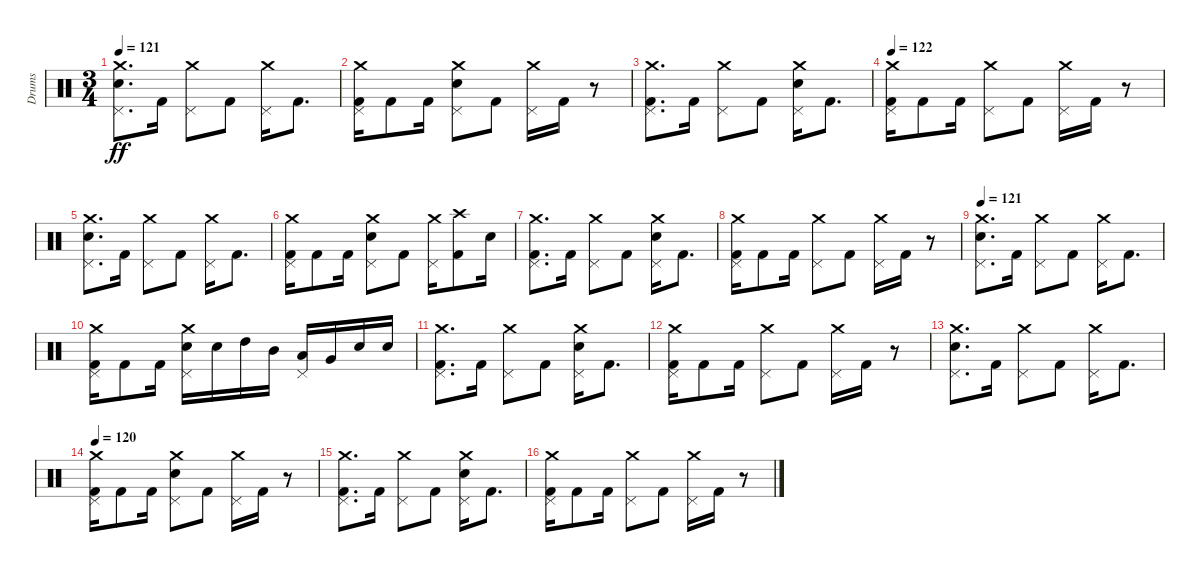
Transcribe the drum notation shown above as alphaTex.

\track ("Drums" "Drums") {instrument percussion}
\staff {score}
\articulation defaults
\ts (3 4)
\tempo 121
\clef neutral
\ks c
("Crash medium (hit)" "Pedal Hi-Hat (hit)" "Electric Snare (hit)").8{d dy ff} "Kick (hit) 2".16 ("Crash medium (hit)" "Pedal Hi-Hat (hit)").8 "Kick (hit) 2".8 ("Crash medium (hit)" "Pedal Hi-Hat (hit)").16 "Kick (hit) 2".8{d} |
("Crash medium (hit)" "Pedal Hi-Hat (hit)" "Kick (hit) 2").16 "Kick (hit) 2".8 "Kick (hit) 2".16 ("Crash medium (hit)" "Pedal Hi-Hat (hit)" "Electric Snare (hit)").8 "Kick (hit) 2".8 ("Crash medium (hit)" "Pedal Hi-Hat (hit)").16 "Kick (hit) 2".16 r.8 |
("Crash medium (hit)" "Pedal Hi-Hat (hit)" "Kick (hit) 2").8{d} "Kick (hit) 2".16 ("Crash medium (hit)" "Pedal Hi-Hat (hit)").8 "Kick (hit) 2".8 ("Crash medium (hit)" "Pedal Hi-Hat (hit)" "Electric Snare (hit)").16 "Kick (hit) 2".8{d} |
\tempo 122
("Crash medium (hit)" "Pedal Hi-Hat (hit)" "Kick (hit) 2").16 "Kick (hit) 2".8 "Kick (hit) 2".16 ("Crash medium (hit)" "Pedal Hi-Hat (hit)").8 "Kick (hit) 2".8 ("Crash medium (hit)" "Pedal Hi-Hat (hit)").16 "Kick (hit) 2".16 r.8 |
("Crash medium (hit)" "Pedal Hi-Hat (hit)" "Electric Snare (hit)").8{d} "Kick (hit) 2".16 ("Crash medium (hit)" "Pedal Hi-Hat (hit)").8 "Kick (hit) 2".8 ("Crash medium (hit)" "Pedal Hi-Hat (hit)").16 "Kick (hit) 2".8{d} |
("Crash medium (hit)" "Pedal Hi-Hat (hit)" "Kick (hit) 2").16 "Kick (hit) 2".8 "Kick (hit) 2".16 ("Crash medium (hit)" "Pedal Hi-Hat (hit)" "Electric Snare (hit)").8 "Kick (hit) 2".8 ("Crash medium (hit)" "Pedal Hi-Hat (hit)").16 ("Crash high (hit)" "Kick (hit) 2").8 "Electric Snare (hit)".16 |
("Crash medium (hit)" "Pedal Hi-Hat (hit)" "Kick (hit) 2").8{d} "Kick (hit) 2".16 ("Crash medium (hit)" "Pedal Hi-Hat (hit)").8 "Kick (hit) 2".8 ("Crash medium (hit)" "Pedal Hi-Hat (hit)" "Electric Snare (hit)").16 "Kick (hit) 2".8{d} |
("Crash medium (hit)" "Pedal Hi-Hat (hit)" "Kick (hit) 2").16 "Kick (hit) 2".8 "Kick (hit) 2".16 ("Crash medium (hit)" "Pedal Hi-Hat (hit)").8 "Kick (hit) 2".8 ("Crash medium (hit)" "Pedal Hi-Hat (hit)").16 "Kick (hit) 2".16 r.8 |
\tempo 121
("Crash medium (hit)" "Pedal Hi-Hat (hit)" "Electric Snare (hit)").8{d} "Kick (hit) 2".16 ("Crash medium (hit)" "Pedal Hi-Hat (hit)").8 "Kick (hit) 2".8 ("Crash medium (hit)" "Pedal Hi-Hat (hit)").16 "Kick (hit) 2".8{d} |
("Crash medium (hit)" "Pedal Hi-Hat (hit)" "Kick (hit) 2").16 "Kick (hit) 2".8 "Kick (hit) 2".16 ("Crash medium (hit)" "Pedal Hi-Hat (hit)" "Electric Snare (hit)").16 "Electric Snare (hit)".16 "High Tom (hit)".16 "Mid Tom (hit)".16 ("Pedal Hi-Hat (hit)" "Low Tom (hit)").16 "Very Low Tom (hit)".16 "Electric Snare (hit)".16 "Electric Snare (hit)".16 |
("Crash medium (hit)" "Pedal Hi-Hat (hit)" "Kick (hit) 2").8{d} "Kick (hit) 2".16 ("Crash medium (hit)" "Pedal Hi-Hat (hit)").8 "Kick (hit) 2".8 ("Crash medium (hit)" "Pedal Hi-Hat (hit)" "Electric Snare (hit)").16 "Kick (hit) 2".8{d} |
("Crash medium (hit)" "Pedal Hi-Hat (hit)" "Kick (hit) 2").16 "Kick (hit) 2".8 "Kick (hit) 2".16 ("Crash medium (hit)" "Pedal Hi-Hat (hit)").8 "Kick (hit) 2".8 ("Crash medium (hit)" "Pedal Hi-Hat (hit)").16 "Kick (hit) 2".16 r.8 |
("Crash medium (hit)" "Pedal Hi-Hat (hit)" "Electric Snare (hit)").8{d} "Kick (hit) 2".16 ("Crash medium (hit)" "Pedal Hi-Hat (hit)").8 "Kick (hit) 2".8 ("Crash medium (hit)" "Pedal Hi-Hat (hit)").16 "Kick (hit) 2".8{d} |
\tempo 120
("Crash medium (hit)" "Pedal Hi-Hat (hit)" "Kick (hit) 2").16 "Kick (hit) 2".8 "Kick (hit) 2".16 ("Crash medium (hit)" "Pedal Hi-Hat (hit)" "Electric Snare (hit)").8 "Kick (hit) 2".8 ("Crash medium (hit)" "Pedal Hi-Hat (hit)").16 "Kick (hit) 2".16 r.8 |
("Crash medium (hit)" "Pedal Hi-Hat (hit)" "Kick (hit) 2").8{d} "Kick (hit) 2".16 ("Crash medium (hit)" "Pedal Hi-Hat (hit)").8 "Kick (hit) 2".8 ("Crash medium (hit)" "Pedal Hi-Hat (hit)" "Electric Snare (hit)").16 "Kick (hit) 2".8{d} |
("Crash medium (hit)" "Pedal Hi-Hat (hit)" "Kick (hit) 2").16 "Kick (hit) 2".8 "Kick (hit) 2".16 ("Crash medium (hit)" "Pedal Hi-Hat (hit)").8 "Kick (hit) 2".8 ("Crash medium (hit)" "Pedal Hi-Hat (hit)").16 "Kick (hit) 2".16 r.8
